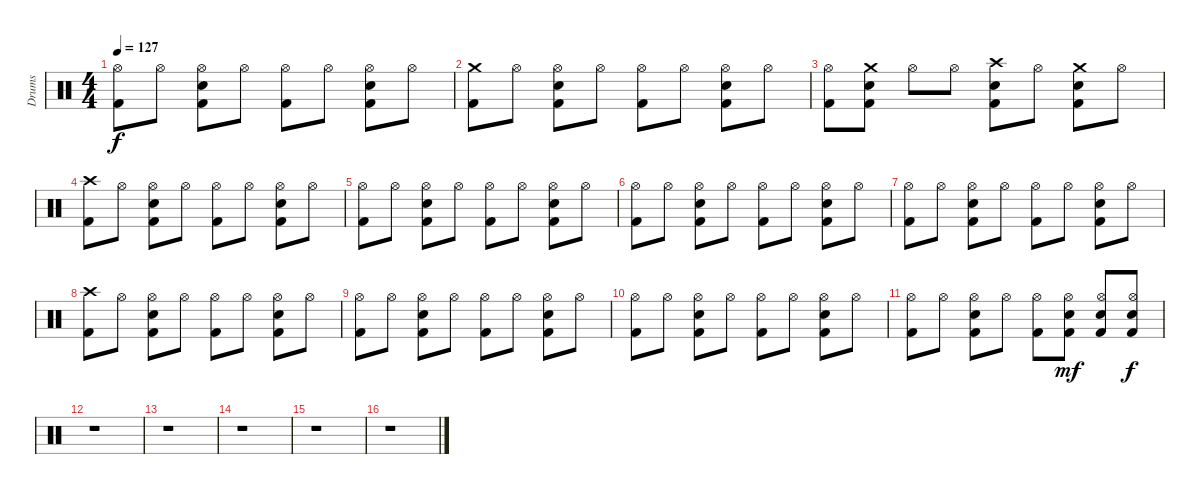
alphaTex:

\track ("Drums" "Drums") {instrument percussion}
\staff {score}
\articulation defaults
\ts (4 4)
\tempo 127
\clef neutral
\ks c
("Kick (hit) 2" "Hi-Hat (open)").8{dy f} "Hi-Hat (open)".8 ("Kick (hit) 2" "Hi-Hat (open)" "Snare (hit) 2").8 "Hi-Hat (open)".8 ("Kick (hit) 2" "Hi-Hat (open)").8 "Hi-Hat (open)".8 ("Kick (hit) 2" "Hi-Hat (open)" "Snare (hit) 2").8 "Hi-Hat (open)".8 |
("Kick (hit) 2" "Crash medium (hit)").8 "Hi-Hat (open)".8 ("Kick (hit) 2" "Hi-Hat (open)" "Snare (hit) 2").8 "Hi-Hat (open)".8 ("Kick (hit) 2" "Hi-Hat (open)").8 "Hi-Hat (open)".8 ("Kick (hit) 2" "Hi-Hat (open)" "Snare (hit) 2").8 "Hi-Hat (open)".8 |
("Kick (hit) 2" "Hi-Hat (open)").8 ("Kick (hit) 2" "Crash medium (hit)" "Snare (hit) 2").8 "Hi-Hat (open)".8 "Hi-Hat (open)".8 ("Kick (hit) 2" "Crash high (hit)" "Snare (hit) 2").8 "Hi-Hat (open)".8 ("Kick (hit) 2" "Crash medium (hit)" "Snare (hit) 2").8 "Hi-Hat (open)".8 |
("Kick (hit) 2" "Crash high (hit)").8 "Hi-Hat (open)".8 ("Kick (hit) 2" "Hi-Hat (open)" "Snare (hit) 2").8 "Hi-Hat (open)".8 ("Kick (hit) 2" "Hi-Hat (open)").8 "Hi-Hat (open)".8 ("Kick (hit) 2" "Hi-Hat (open)" "Snare (hit) 2").8 "Hi-Hat (open)".8 |
("Kick (hit) 2" "Hi-Hat (open)").8 "Hi-Hat (open)".8 ("Kick (hit) 2" "Hi-Hat (open)" "Snare (hit) 2").8 "Hi-Hat (open)".8 ("Kick (hit) 2" "Hi-Hat (open)").8 "Hi-Hat (open)".8 ("Kick (hit) 2" "Hi-Hat (open)" "Snare (hit) 2").8 "Hi-Hat (open)".8 |
("Kick (hit) 2" "Hi-Hat (open)").8 "Hi-Hat (open)".8 ("Kick (hit) 2" "Hi-Hat (open)" "Snare (hit) 2").8 "Hi-Hat (open)".8 ("Kick (hit) 2" "Hi-Hat (open)").8 "Hi-Hat (open)".8 ("Kick (hit) 2" "Hi-Hat (open)" "Snare (hit) 2").8 "Hi-Hat (open)".8 |
("Kick (hit) 2" "Hi-Hat (open)").8 "Hi-Hat (open)".8 ("Kick (hit) 2" "Hi-Hat (open)" "Snare (hit) 2").8 "Hi-Hat (open)".8 ("Kick (hit) 2" "Hi-Hat (open)").8 "Hi-Hat (open)".8 ("Kick (hit) 2" "Hi-Hat (open)" "Snare (hit) 2").8 "Hi-Hat (open)".8 |
("Kick (hit) 2" "Crash high (hit)").8 "Hi-Hat (open)".8 ("Kick (hit) 2" "Hi-Hat (open)" "Snare (hit) 2").8 "Hi-Hat (open)".8 ("Kick (hit) 2" "Hi-Hat (open)").8 "Hi-Hat (open)".8 ("Kick (hit) 2" "Hi-Hat (open)" "Snare (hit) 2").8 "Hi-Hat (open)".8 |
("Kick (hit) 2" "Hi-Hat (open)").8 "Hi-Hat (open)".8 ("Kick (hit) 2" "Hi-Hat (open)" "Snare (hit) 2").8 "Hi-Hat (open)".8 ("Kick (hit) 2" "Hi-Hat (open)").8 "Hi-Hat (open)".8 ("Kick (hit) 2" "Hi-Hat (open)" "Snare (hit) 2").8 "Hi-Hat (open)".8 |
("Kick (hit) 2" "Hi-Hat (open)").8 "Hi-Hat (open)".8 ("Kick (hit) 2" "Hi-Hat (open)" "Snare (hit) 2").8 "Hi-Hat (open)".8 ("Kick (hit) 2" "Hi-Hat (open)").8 "Hi-Hat (open)".8 ("Kick (hit) 2" "Hi-Hat (open)" "Snare (hit) 2").8 "Hi-Hat (open)".8 |
("Kick (hit) 2" "Hi-Hat (open)").8 "Hi-Hat (open)".8 ("Kick (hit) 2" "Hi-Hat (open)" "Snare (hit) 2").8 "Hi-Hat (open)".8 ("Kick (hit) 2" "Hi-Hat (open)").8 ("Kick (hit) 2" "Hi-Hat (open)" "Snare (hit) 2").8{dy mf} ("Kick (hit) 2" "Hi-Hat (open)" "Snare (hit) 2").8 ("Kick (hit) 2" "Hi-Hat (open)" "Snare (hit) 2").8{dy f} |
r.1 |
r.1 |
r.1 |
r.1 |
r.1
